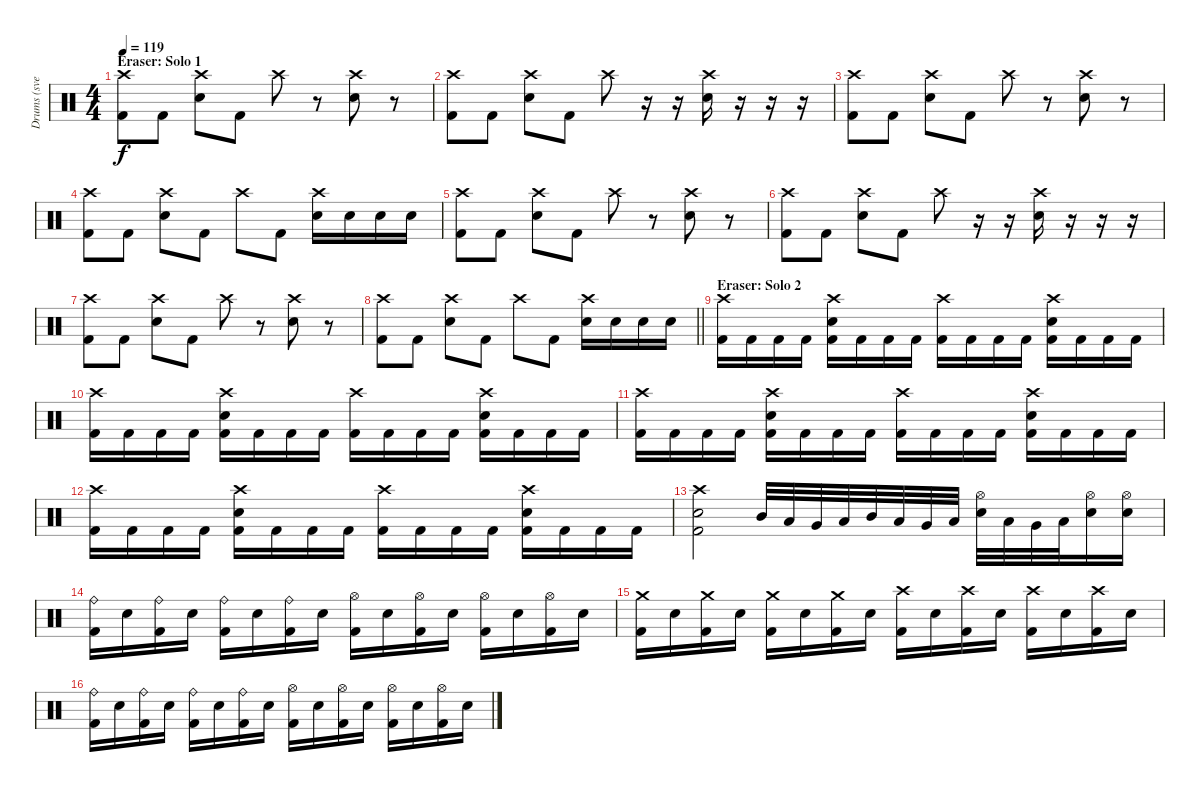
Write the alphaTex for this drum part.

\track ("Drums (svelle)" "Drums (sve") {instrument percussion}
\staff {score}
\articulation defaults
\ts (4 4)
\section ("" "Eraser: Solo 1")
\tempo 119
\clef neutral
\ks c
("Crash high (hit)" "Kick (hit) 2").8{dy f} "Kick (hit) 2".8 ("Crash high (hit)" "Electric Snare (hit)").8 "Kick (hit) 2".8 "Crash high (hit)".8 r.8 ("Crash high (hit)" "Electric Snare (hit)").8 r.8 |
("Crash high (hit)" "Kick (hit) 2").8 "Kick (hit) 2".8 ("Crash high (hit)" "Electric Snare (hit)").8 "Kick (hit) 2".8 "Crash high (hit)".8 r.16 r.16 ("Crash high (hit)" "Electric Snare (hit)").16 r.16 r.16 r.16 |
("Crash high (hit)" "Kick (hit) 2").8 "Kick (hit) 2".8 ("Crash high (hit)" "Electric Snare (hit)").8 "Kick (hit) 2".8 "Crash high (hit)".8 r.8 ("Crash high (hit)" "Electric Snare (hit)").8 r.8 |
("Crash high (hit)" "Kick (hit) 2").8 "Kick (hit) 2".8 ("Crash high (hit)" "Electric Snare (hit)").8 "Kick (hit) 2".8 "Crash high (hit)".8 "Kick (hit) 2".8 ("Crash high (hit)" "Electric Snare (hit)").16 "Electric Snare (hit)".16 "Electric Snare (hit)".16 "Electric Snare (hit)".16 |
("Crash high (hit)" "Kick (hit) 2").8 "Kick (hit) 2".8 ("Crash high (hit)" "Electric Snare (hit)").8 "Kick (hit) 2".8 "Crash high (hit)".8 r.8 ("Crash high (hit)" "Electric Snare (hit)").8 r.8 |
("Crash high (hit)" "Kick (hit) 2").8 "Kick (hit) 2".8 ("Crash high (hit)" "Electric Snare (hit)").8 "Kick (hit) 2".8 "Crash high (hit)".8 r.16 r.16 ("Crash high (hit)" "Electric Snare (hit)").16 r.16 r.16 r.16 |
("Crash high (hit)" "Kick (hit) 2").8 "Kick (hit) 2".8 ("Crash high (hit)" "Electric Snare (hit)").8 "Kick (hit) 2".8 "Crash high (hit)".8 r.8 ("Crash high (hit)" "Electric Snare (hit)").8 r.8 |
\barLineRight lightlight
("Crash high (hit)" "Kick (hit) 2").8 "Kick (hit) 2".8 ("Crash high (hit)" "Electric Snare (hit)").8 "Kick (hit) 2".8 "Crash high (hit)".8 "Kick (hit) 2".8 ("Crash high (hit)" "Electric Snare (hit)").16 "Electric Snare (hit)".16 "Electric Snare (hit)".16 "Electric Snare (hit)".16 |
\section ("" "Eraser: Solo 2")
("Crash high (hit)" "Kick (hit) 2").16 "Kick (hit) 2".16 "Kick (hit) 2".16 "Kick (hit) 2".16 ("Crash high (hit)" "Electric Snare (hit)" "Kick (hit) 2").16 "Kick (hit) 2".16 "Kick (hit) 2".16 "Kick (hit) 2".16 ("Crash high (hit)" "Kick (hit) 2").16 "Kick (hit) 2".16 "Kick (hit) 2".16 "Kick (hit) 2".16 ("Crash high (hit)" "Electric Snare (hit)" "Kick (hit) 2").16 "Kick (hit) 2".16 "Kick (hit) 2".16 "Kick (hit) 2".16 |
("Crash high (hit)" "Kick (hit) 2").16 "Kick (hit) 2".16 "Kick (hit) 2".16 "Kick (hit) 2".16 ("Crash high (hit)" "Electric Snare (hit)" "Kick (hit) 2").16 "Kick (hit) 2".16 "Kick (hit) 2".16 "Kick (hit) 2".16 ("Crash high (hit)" "Kick (hit) 2").16 "Kick (hit) 2".16 "Kick (hit) 2".16 "Kick (hit) 2".16 ("Crash high (hit)" "Electric Snare (hit)" "Kick (hit) 2").16 "Kick (hit) 2".16 "Kick (hit) 2".16 "Kick (hit) 2".16 |
("Crash high (hit)" "Kick (hit) 2").16 "Kick (hit) 2".16 "Kick (hit) 2".16 "Kick (hit) 2".16 ("Crash high (hit)" "Electric Snare (hit)" "Kick (hit) 2").16 "Kick (hit) 2".16 "Kick (hit) 2".16 "Kick (hit) 2".16 ("Crash high (hit)" "Kick (hit) 2").16 "Kick (hit) 2".16 "Kick (hit) 2".16 "Kick (hit) 2".16 ("Crash high (hit)" "Electric Snare (hit)" "Kick (hit) 2").16 "Kick (hit) 2".16 "Kick (hit) 2".16 "Kick (hit) 2".16 |
("Crash high (hit)" "Kick (hit) 2").16 "Kick (hit) 2".16 "Kick (hit) 2".16 "Kick (hit) 2".16 ("Crash high (hit)" "Electric Snare (hit)" "Kick (hit) 2").16 "Kick (hit) 2".16 "Kick (hit) 2".16 "Kick (hit) 2".16 ("Crash high (hit)" "Kick (hit) 2").16 "Kick (hit) 2".16 "Kick (hit) 2".16 "Kick (hit) 2".16 ("Crash high (hit)" "Electric Snare (hit)" "Kick (hit) 2").16 "Kick (hit) 2".16 "Kick (hit) 2".16 "Kick (hit) 2".16 |
("Crash high (hit)" "Electric Snare (hit)" "Kick (hit) 2").2 "Mid Tom (hit)".32 "Low Tom (hit)".32 "Very Low Tom (hit)".32 "Low Floor Tom (hit)".32 "Mid Tom (hit)".32 "Low Tom (hit)".32 "Very Low Tom (hit)".32 "Low Floor Tom (hit)".32 ("Hi-Hat (open)" "Electric Snare (hit)").32 "Low Tom (hit)".32 "Very Low Tom (hit)".32 "Low Floor Tom (hit)".32 ("Hi-Hat (open)" "Electric Snare (hit)").16 ("Hi-Hat (open)" "Electric Snare (hit)").16 |
("Ride (bell)" "Kick (hit) 2").16 "Electric Snare (hit)".16 ("Ride (bell)" "Kick (hit) 2").16 "Electric Snare (hit)".16 ("Ride (bell)" "Kick (hit) 2").16 "Electric Snare (hit)".16 ("Ride (bell)" "Kick (hit) 2").16 "Electric Snare (hit)".16 ("Hi-Hat (open)" "Kick (hit) 2").16 "Electric Snare (hit)".16 ("Hi-Hat (open)" "Kick (hit) 2").16 "Electric Snare (hit)".16 ("Hi-Hat (open)" "Kick (hit) 2").16 "Electric Snare (hit)".16 ("Hi-Hat (open)" "Kick (hit) 2").16 "Electric Snare (hit)".16 |
("Crash medium (hit)" "Kick (hit) 2").16 "Electric Snare (hit)".16 ("Crash medium (hit)" "Kick (hit) 2").16 "Electric Snare (hit)".16 ("Crash medium (hit)" "Kick (hit) 2").16 "Electric Snare (hit)".16 ("Crash medium (hit)" "Kick (hit) 2").16 "Electric Snare (hit)".16 ("Crash high (hit)" "Kick (hit) 2").16 "Electric Snare (hit)".16 ("Crash high (hit)" "Kick (hit) 2").16 "Electric Snare (hit)".16 ("Crash high (hit)" "Kick (hit) 2").16 "Electric Snare (hit)".16 ("Crash high (hit)" "Kick (hit) 2").16 "Electric Snare (hit)".16 |
("Ride (bell)" "Kick (hit) 2").16 "Electric Snare (hit)".16 ("Ride (bell)" "Kick (hit) 2").16 "Electric Snare (hit)".16 ("Ride (bell)" "Kick (hit) 2").16 "Electric Snare (hit)".16 ("Ride (bell)" "Kick (hit) 2").16 "Electric Snare (hit)".16 ("Hi-Hat (open)" "Kick (hit) 2").16 "Electric Snare (hit)".16 ("Hi-Hat (open)" "Kick (hit) 2").16 "Electric Snare (hit)".16 ("Hi-Hat (open)" "Kick (hit) 2").16 "Electric Snare (hit)".16 ("Hi-Hat (open)" "Kick (hit) 2").16 "Electric Snare (hit)".16
